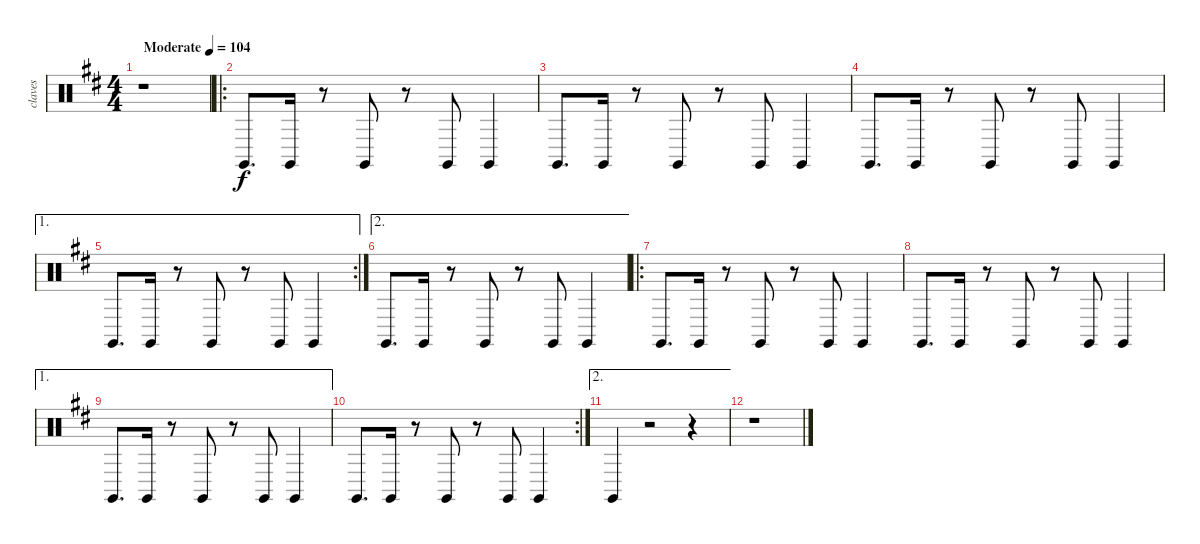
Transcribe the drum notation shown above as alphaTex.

\track ("claves" "claves") {instrument percussion}
\staff {score}
\articulation defaults
\ts (4 4)
\tempo (104 "Moderate")
\clef neutral
\ks d
r.1{dy f} |
\ro "Claves (hit)".8{d} "Claves (hit)".16
r.8 "Claves (hit)".8 r.8 "Claves (hit)".8 "Claves (hit)".4 |
"Claves (hit)".8{d} "Claves (hit)".16 r.8 "Claves (hit)".8 r.8 "Claves (hit)".8 "Claves (hit)".4 |
"Claves (hit)".8{d} "Claves (hit)".16 r.8 "Claves (hit)".8 r.8 "Claves (hit)".8 "Claves (hit)".4 |
\ae 1
\rc 2 "Claves (hit)".8{d} "Claves (hit)".16
r.8 "Claves (hit)".8 r.8 "Claves (hit)".8 "Claves (hit)".4 |
\ae 2 "Claves (hit)".8{d} "Claves (hit)".16
r.8 "Claves (hit)".8 r.8 "Claves (hit)".8 "Claves (hit)".4 |
\ro "Claves (hit)".8{d} "Claves (hit)".16
r.8 "Claves (hit)".8 r.8 "Claves (hit)".8 "Claves (hit)".4 |
"Claves (hit)".8{d} "Claves (hit)".16 r.8 "Claves (hit)".8 r.8 "Claves (hit)".8 "Claves (hit)".4 |
\ae 1 "Claves (hit)".8{d} "Claves (hit)".16
r.8 "Claves (hit)".8 r.8 "Claves (hit)".8 "Claves (hit)".4 |
\rc 2 "Claves (hit)".8{d} "Claves (hit)".16
r.8 "Claves (hit)".8 r.8 "Claves (hit)".8 "Claves (hit)".4 |
\ae 2 "Claves (hit)".4
r.2 r.4 |
r.1
